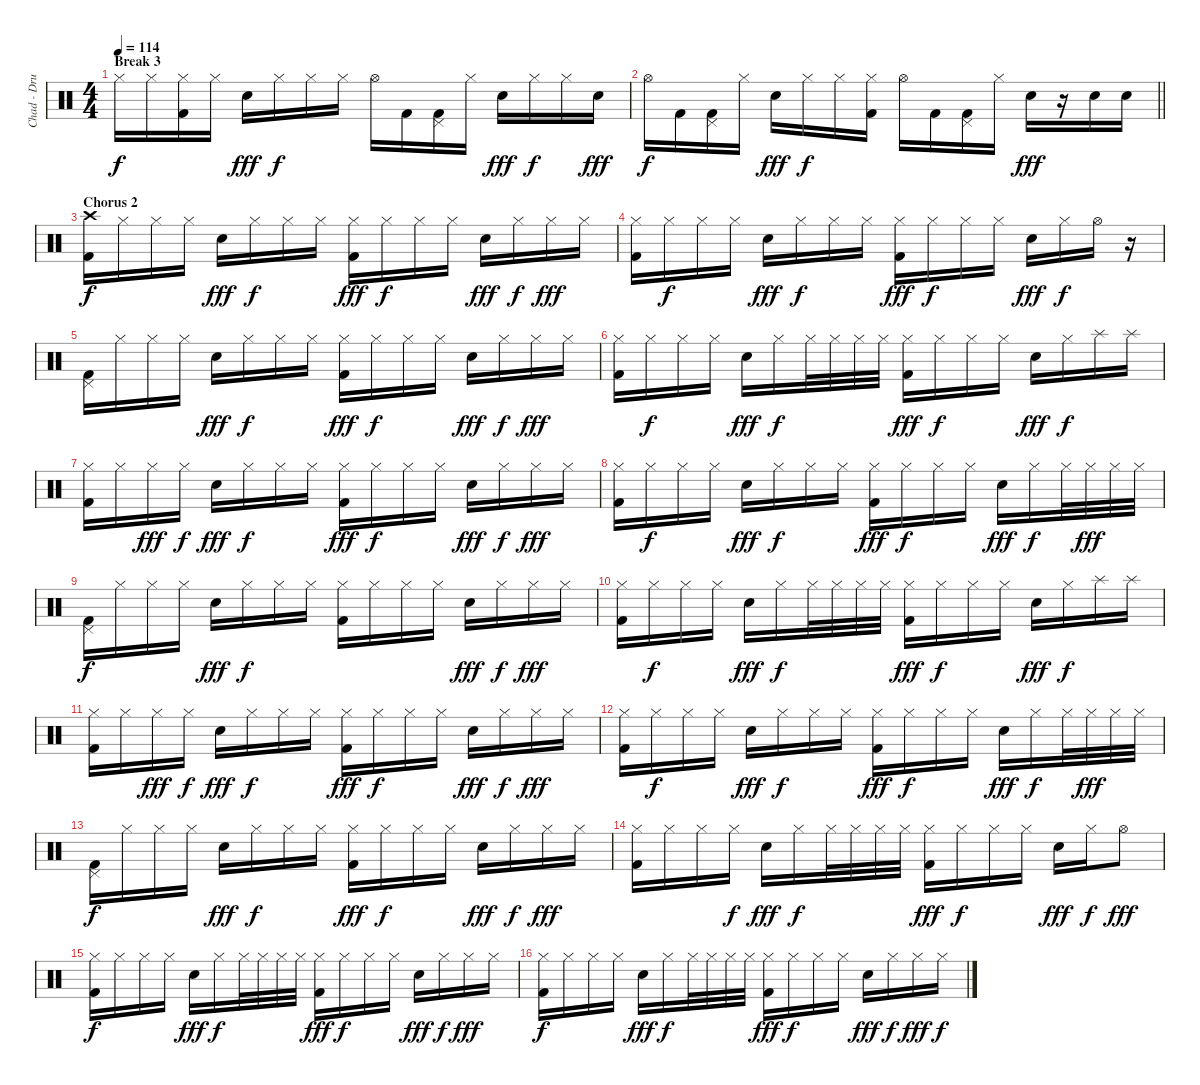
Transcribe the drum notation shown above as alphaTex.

\track ("Chad - Drums" "Chad - Dru") {instrument percussion}
\staff {score}
\articulation defaults
\ts (4 4)
\section ("" "Break 3")
\tempo 114
\clef neutral
\ks c "Hi-Hat (closed)".16{dy f} "Hi-Hat (closed)".16
("Hi-Hat (closed)" "Kick (hit) 2").16 "Hi-Hat (closed)".16 "Electric Snare (hit)".16{dy fff} "Hi-Hat (closed)".16{dy f} "Hi-Hat (closed)".16 "Hi-Hat (closed)".16 "Hi-Hat (open)".16 "Kick (hit) 2".16 ("Pedal Hi-Hat (hit)" "Kick (hit) 2").16 "Hi-Hat (closed)".16 "Electric Snare (hit)".16{dy fff} "Hi-Hat (closed)".16{dy f} "Hi-Hat (closed)".16 "Electric Snare (hit)".16{dy fff} |
\barLineRight lightlight "Hi-Hat (open)".16{dy f} "Kick (hit) 2".16
("Pedal Hi-Hat (hit)" "Kick (hit) 2").16 "Hi-Hat (closed)".16 "Electric Snare (hit)".16{dy fff} "Hi-Hat (closed)".16{dy f} "Hi-Hat (closed)".16 ("Hi-Hat (closed)" "Kick (hit) 2").16 "Hi-Hat (open)".16 "Kick (hit) 2".16 ("Pedal Hi-Hat (hit)" "Kick (hit) 2").16 "Hi-Hat (closed)".16 "Electric Snare (hit)".16{dy fff} r.16 "Electric Snare (hit)".16 "Electric Snare (hit)".16 |
\section ("" "Chorus 2")
("Crash high (hit)" "Kick (hit) 2").16{dy f} "Hi-Hat (closed)".16 "Hi-Hat (closed)".16 "Hi-Hat (closed)".16 "Electric Snare (hit)".16{dy fff} "Hi-Hat (closed)".16{dy f} "Hi-Hat (closed)".16 "Hi-Hat (closed)".16 ("Hi-Hat (closed)" "Kick (hit) 2").16{dy fff} "Hi-Hat (closed)".16{dy f} "Hi-Hat (closed)".16 "Hi-Hat (closed)".16 "Electric Snare (hit)".16{dy fff} "Hi-Hat (closed)".16{dy f} "Hi-Hat (closed)".16{dy fff} "Hi-Hat (closed)".16 |
("Hi-Hat (closed)" "Kick (hit) 2").16 "Hi-Hat (closed)".16{dy f} "Hi-Hat (closed)".16 "Hi-Hat (closed)".16 "Electric Snare (hit)".16{dy fff} "Hi-Hat (closed)".16{dy f} "Hi-Hat (closed)".16 "Hi-Hat (closed)".16 ("Hi-Hat (closed)" "Kick (hit) 2").16{dy fff} "Hi-Hat (closed)".16{dy f} "Hi-Hat (closed)".16 "Hi-Hat (closed)".16 "Electric Snare (hit)".16{dy fff} "Hi-Hat (closed)".16{dy f} "Hi-Hat (open)".16 r.16 |
("Pedal Hi-Hat (hit)" "Kick (hit) 2").16 "Hi-Hat (closed)".16 "Hi-Hat (closed)".16 "Hi-Hat (closed)".16 "Electric Snare (hit)".16{dy fff} "Hi-Hat (closed)".16{dy f} "Hi-Hat (closed)".16 "Hi-Hat (closed)".16 ("Hi-Hat (closed)" "Kick (hit) 2").16{dy fff} "Hi-Hat (closed)".16{dy f} "Hi-Hat (closed)".16 "Hi-Hat (closed)".16 "Electric Snare (hit)".16{dy fff} "Hi-Hat (closed)".16{dy f} "Hi-Hat (closed)".16{dy fff} "Hi-Hat (closed)".16 |
("Hi-Hat (closed)" "Kick (hit) 2").16 "Hi-Hat (closed)".16{dy f} "Hi-Hat (closed)".16 "Hi-Hat (closed)".16 "Electric Snare (hit)".16{dy fff} "Hi-Hat (closed)".16{dy f} "Hi-Hat (closed)".32 "Hi-Hat (closed)".32 "Hi-Hat (closed)".32 "Hi-Hat (closed)".32 ("Hi-Hat (closed)" "Kick (hit) 2").16{dy fff} "Hi-Hat (closed)".16{dy f} "Hi-Hat (closed)".16 "Hi-Hat (closed)".16 "Electric Snare (hit)".16{dy fff} "Hi-Hat (closed)".16{dy f} "Splash (hit)".16 "Splash (hit)".16 |
("Hi-Hat (closed)" "Kick (hit) 2").16 "Hi-Hat (closed)".16 "Hi-Hat (closed)".16{dy fff} "Hi-Hat (closed)".16{dy f} "Electric Snare (hit)".16{dy fff} "Hi-Hat (closed)".16{dy f} "Hi-Hat (closed)".16 "Hi-Hat (closed)".16 ("Hi-Hat (closed)" "Kick (hit) 2").16{dy fff} "Hi-Hat (closed)".16{dy f} "Hi-Hat (closed)".16 "Hi-Hat (closed)".16 "Electric Snare (hit)".16{dy fff} "Hi-Hat (closed)".16{dy f} "Hi-Hat (closed)".16{dy fff} "Hi-Hat (closed)".16 |
("Hi-Hat (closed)" "Kick (hit) 2").16 "Hi-Hat (closed)".16{dy f} "Hi-Hat (closed)".16 "Hi-Hat (closed)".16 "Electric Snare (hit)".16{dy fff} "Hi-Hat (closed)".16{dy f} "Hi-Hat (closed)".16 "Hi-Hat (closed)".16 ("Hi-Hat (closed)" "Kick (hit) 2").16{dy fff} "Hi-Hat (closed)".16{dy f} "Hi-Hat (closed)".16 "Hi-Hat (closed)".16 "Electric Snare (hit)".16{dy fff} "Hi-Hat (closed)".16{dy f} "Hi-Hat (closed)".32 "Hi-Hat (closed)".32{dy fff} "Hi-Hat (closed)".32 "Hi-Hat (closed)".32 |
("Pedal Hi-Hat (hit)" "Kick (hit) 2").16{dy f} "Hi-Hat (closed)".16 "Hi-Hat (closed)".16 "Hi-Hat (closed)".16 "Electric Snare (hit)".16{dy fff} "Hi-Hat (closed)".16{dy f} "Hi-Hat (closed)".16 "Hi-Hat (closed)".16 ("Hi-Hat (closed)" "Kick (hit) 2").16 "Hi-Hat (closed)".16 "Hi-Hat (closed)".16 "Hi-Hat (closed)".16 "Electric Snare (hit)".16{dy fff} "Hi-Hat (closed)".16{dy f} "Hi-Hat (closed)".16{dy fff} "Hi-Hat (closed)".16 |
("Hi-Hat (closed)" "Kick (hit) 2").16 "Hi-Hat (closed)".16{dy f} "Hi-Hat (closed)".16 "Hi-Hat (closed)".16 "Electric Snare (hit)".16{dy fff} "Hi-Hat (closed)".16{dy f} "Hi-Hat (closed)".32 "Hi-Hat (closed)".32 "Hi-Hat (closed)".32 "Hi-Hat (closed)".32 ("Hi-Hat (closed)" "Kick (hit) 2").16{dy fff} "Hi-Hat (closed)".16{dy f} "Hi-Hat (closed)".16 "Hi-Hat (closed)".16 "Electric Snare (hit)".16{dy fff} "Hi-Hat (closed)".16{dy f} "Splash (hit)".16 "Splash (hit)".16 |
("Hi-Hat (closed)" "Kick (hit) 2").16 "Hi-Hat (closed)".16 "Hi-Hat (closed)".16{dy fff} "Hi-Hat (closed)".16{dy f} "Electric Snare (hit)".16{dy fff} "Hi-Hat (closed)".16{dy f} "Hi-Hat (closed)".16 "Hi-Hat (closed)".16 ("Hi-Hat (closed)" "Kick (hit) 2").16{dy fff} "Hi-Hat (closed)".16{dy f} "Hi-Hat (closed)".16 "Hi-Hat (closed)".16 "Electric Snare (hit)".16{dy fff} "Hi-Hat (closed)".16{dy f} "Hi-Hat (closed)".16{dy fff} "Hi-Hat (closed)".16 |
("Hi-Hat (closed)" "Kick (hit) 2").16 "Hi-Hat (closed)".16{dy f} "Hi-Hat (closed)".16 "Hi-Hat (closed)".16 "Electric Snare (hit)".16{dy fff} "Hi-Hat (closed)".16{dy f} "Hi-Hat (closed)".16 "Hi-Hat (closed)".16 ("Hi-Hat (closed)" "Kick (hit) 2").16{dy fff} "Hi-Hat (closed)".16{dy f} "Hi-Hat (closed)".16 "Hi-Hat (closed)".16 "Electric Snare (hit)".16{dy fff} "Hi-Hat (closed)".16{dy f} "Hi-Hat (closed)".32 "Hi-Hat (closed)".32{dy fff} "Hi-Hat (closed)".32 "Hi-Hat (closed)".32 |
("Pedal Hi-Hat (hit)" "Kick (hit) 2").16{dy f} "Hi-Hat (closed)".16 "Hi-Hat (closed)".16 "Hi-Hat (closed)".16 "Electric Snare (hit)".16{dy fff} "Hi-Hat (closed)".16{dy f} "Hi-Hat (closed)".16 "Hi-Hat (closed)".16 ("Hi-Hat (closed)" "Kick (hit) 2").16{dy fff} "Hi-Hat (closed)".16{dy f} "Hi-Hat (closed)".16 "Hi-Hat (closed)".16 "Electric Snare (hit)".16{dy fff} "Hi-Hat (closed)".16{dy f} "Hi-Hat (closed)".16{dy fff} "Hi-Hat (closed)".16 |
("Hi-Hat (closed)" "Kick (hit) 2").16 "Hi-Hat (closed)".16 "Hi-Hat (closed)".16 "Hi-Hat (closed)".16{dy f} "Electric Snare (hit)".16{dy fff} "Hi-Hat (closed)".16{dy f} "Hi-Hat (closed)".32 "Hi-Hat (closed)".32 "Hi-Hat (closed)".32 "Hi-Hat (closed)".32 ("Hi-Hat (closed)" "Kick (hit) 2").16{dy fff} "Hi-Hat (closed)".16{dy f} "Hi-Hat (closed)".16 "Hi-Hat (closed)".16 "Electric Snare (hit)".16{dy fff} "Hi-Hat (closed)".16{dy f} "Hi-Hat (open)".8{dy fff} |
("Hi-Hat (closed)" "Kick (hit) 2").16{dy f} "Hi-Hat (closed)".16 "Hi-Hat (closed)".16 "Hi-Hat (closed)".16 "Electric Snare (hit)".16{dy fff} "Hi-Hat (closed)".16{dy f} "Hi-Hat (closed)".32 "Hi-Hat (closed)".32 "Hi-Hat (closed)".32 "Hi-Hat (closed)".32 ("Hi-Hat (closed)" "Kick (hit) 2").16{dy fff} "Hi-Hat (closed)".16{dy f} "Hi-Hat (closed)".16 "Hi-Hat (closed)".16 "Electric Snare (hit)".16{dy fff} "Hi-Hat (closed)".16{dy f} "Hi-Hat (closed)".16{dy fff} "Hi-Hat (closed)".16 |
("Hi-Hat (closed)" "Kick (hit) 2").16{dy f} "Hi-Hat (closed)".16 "Hi-Hat (closed)".16 "Hi-Hat (closed)".16 "Electric Snare (hit)".16{dy fff} "Hi-Hat (closed)".16{dy f} "Hi-Hat (closed)".32 "Hi-Hat (closed)".32 "Hi-Hat (closed)".32 "Hi-Hat (closed)".32 ("Hi-Hat (closed)" "Kick (hit) 2").16{dy fff} "Hi-Hat (closed)".16{dy f} "Hi-Hat (closed)".16 "Hi-Hat (closed)".16 "Electric Snare (hit)".16{dy fff} "Hi-Hat (closed)".16{dy f} "Hi-Hat (closed)".16{dy fff} "Hi-Hat (closed)".16{dy f}
